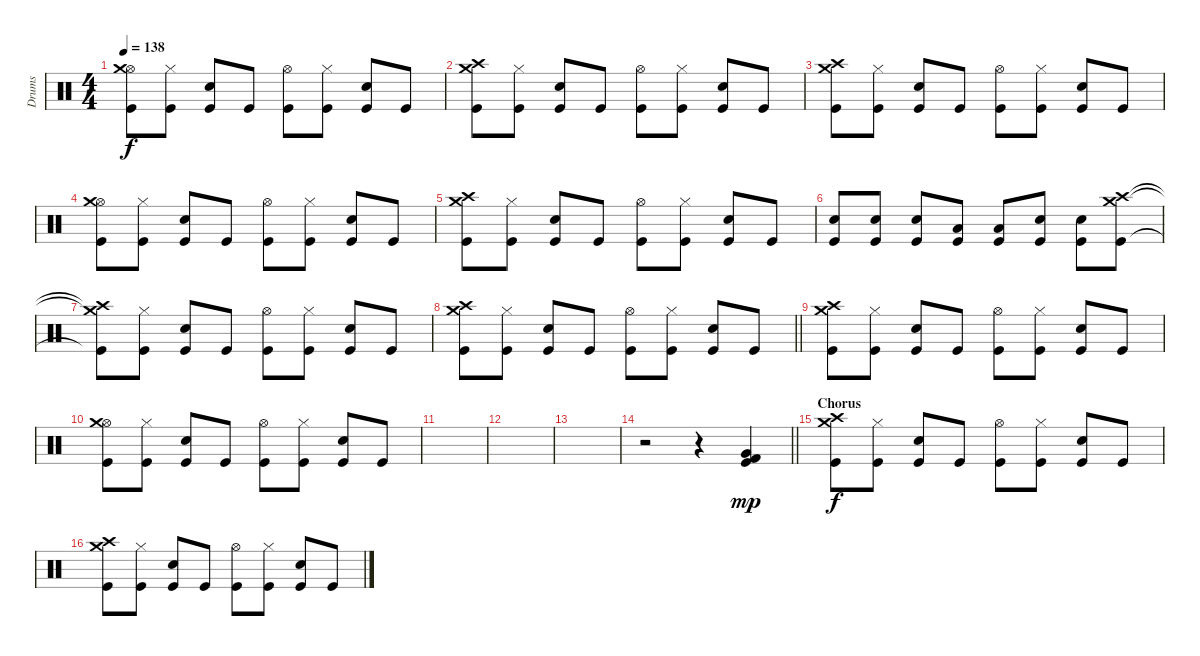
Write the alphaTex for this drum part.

\track ("Drums" "Drums") {instrument percussion}
\staff {score}
\articulation defaults
\ts (4 4)
\tempo 138
\clef neutral
\ks c
("Kick (hit)" "Hi-Hat (open)" "Crash medium (hit)").8{dy f} ("Hi-Hat (closed)" "Kick (hit)").8 ("Electric Snare (hit)" "Kick (hit)").8 "Kick (hit)".8 ("Hi-Hat (open)" "Kick (hit)").8 ("Hi-Hat (closed)" "Kick (hit)").8 ("Electric Snare (hit)" "Kick (hit)").8 "Kick (hit)".8 |
("Kick (hit)" "Crash high (hit)" "Crash medium (hit)").8 ("Hi-Hat (closed)" "Kick (hit)").8 ("Electric Snare (hit)" "Kick (hit)").8 "Kick (hit)".8 ("Hi-Hat (open)" "Kick (hit)").8 ("Hi-Hat (closed)" "Kick (hit)").8 ("Electric Snare (hit)" "Kick (hit)").8 "Kick (hit)".8 |
("Kick (hit)" "Crash high (hit)" "Crash medium (hit)").8 ("Hi-Hat (closed)" "Kick (hit)").8 ("Electric Snare (hit)" "Kick (hit)").8 "Kick (hit)".8 ("Hi-Hat (open)" "Kick (hit)").8 ("Hi-Hat (closed)" "Kick (hit)").8 ("Electric Snare (hit)" "Kick (hit)").8 "Kick (hit)".8 |
("Kick (hit)" "Hi-Hat (open)" "Crash medium (hit)").8 ("Hi-Hat (closed)" "Kick (hit)").8 ("Electric Snare (hit)" "Kick (hit)").8 "Kick (hit)".8 ("Hi-Hat (open)" "Kick (hit)").8 ("Hi-Hat (closed)" "Kick (hit)").8 ("Electric Snare (hit)" "Kick (hit)").8 "Kick (hit)".8 |
("Kick (hit)" "Crash high (hit)" "Crash medium (hit)").8 ("Hi-Hat (closed)" "Kick (hit)").8 ("Electric Snare (hit)" "Kick (hit)").8 "Kick (hit)".8 ("Hi-Hat (open)" "Kick (hit)").8 ("Hi-Hat (closed)" "Kick (hit)").8 ("Electric Snare (hit)" "Kick (hit)").8 "Kick (hit)".8 |
("Electric Snare (hit)" "Kick (hit)").8 ("Electric Snare (hit)" "Kick (hit)").8 ("Electric Snare (hit)" "Kick (hit)").8 ("Low Floor Tom (hit)" "Kick (hit)").8 ("Low Floor Tom (hit)" "Kick (hit)").8 ("Electric Snare (hit)" "Kick (hit)").8 ("Electric Snare (hit)" "Kick (hit)").8 ("Kick (hit)" "Crash high (hit)" "Crash medium (hit)").8 |
("Kick (hit)"{t} "Crash high (hit)"{t} "Crash medium (hit)"{t}).8 ("Hi-Hat (closed)" "Kick (hit)").8 ("Electric Snare (hit)" "Kick (hit)").8 "Kick (hit)".8 ("Hi-Hat (open)" "Kick (hit)").8 ("Hi-Hat (closed)" "Kick (hit)").8 ("Electric Snare (hit)" "Kick (hit)").8 "Kick (hit)".8 |
\barLineRight lightlight
("Kick (hit)" "Crash high (hit)" "Crash medium (hit)").8 ("Hi-Hat (closed)" "Kick (hit)").8 ("Electric Snare (hit)" "Kick (hit)").8 "Kick (hit)".8 ("Hi-Hat (open)" "Kick (hit)").8 ("Hi-Hat (closed)" "Kick (hit)").8 ("Electric Snare (hit)" "Kick (hit)").8 "Kick (hit)".8 |
("Kick (hit)" "Crash high (hit)" "Crash medium (hit)").8 ("Hi-Hat (closed)" "Kick (hit)").8 ("Electric Snare (hit)" "Kick (hit)").8 "Kick (hit)".8 ("Hi-Hat (open)" "Kick (hit)").8 ("Hi-Hat (closed)" "Kick (hit)").8 ("Electric Snare (hit)" "Kick (hit)").8 "Kick (hit)".8 |
("Kick (hit)" "Hi-Hat (open)" "Crash medium (hit)").8 ("Hi-Hat (closed)" "Kick (hit)").8 ("Electric Snare (hit)" "Kick (hit)").8 "Kick (hit)".8 ("Hi-Hat (open)" "Kick (hit)").8 ("Hi-Hat (closed)" "Kick (hit)").8 ("Electric Snare (hit)" "Kick (hit)").8 "Kick (hit)".8 |
|
|
|
\barLineRight lightlight
r.2 r.4 ("Kick (hit) 2" "Kick (hit)" "Very Low Tom (hit)").4{dy mp} |
\section ("" "Chorus")
("Kick (hit)" "Crash high (hit)" "Crash medium (hit)").8{dy f} ("Hi-Hat (closed)" "Kick (hit)").8 ("Electric Snare (hit)" "Kick (hit)").8 "Kick (hit)".8 ("Hi-Hat (open)" "Kick (hit)").8 ("Hi-Hat (closed)" "Kick (hit)").8 ("Electric Snare (hit)" "Kick (hit)").8 "Kick (hit)".8 |
("Kick (hit)" "Crash high (hit)" "Crash medium (hit)").8 ("Hi-Hat (closed)" "Kick (hit)").8 ("Electric Snare (hit)" "Kick (hit)").8 "Kick (hit)".8 ("Hi-Hat (open)" "Kick (hit)").8 ("Hi-Hat (closed)" "Kick (hit)").8 ("Electric Snare (hit)" "Kick (hit)").8 "Kick (hit)".8
